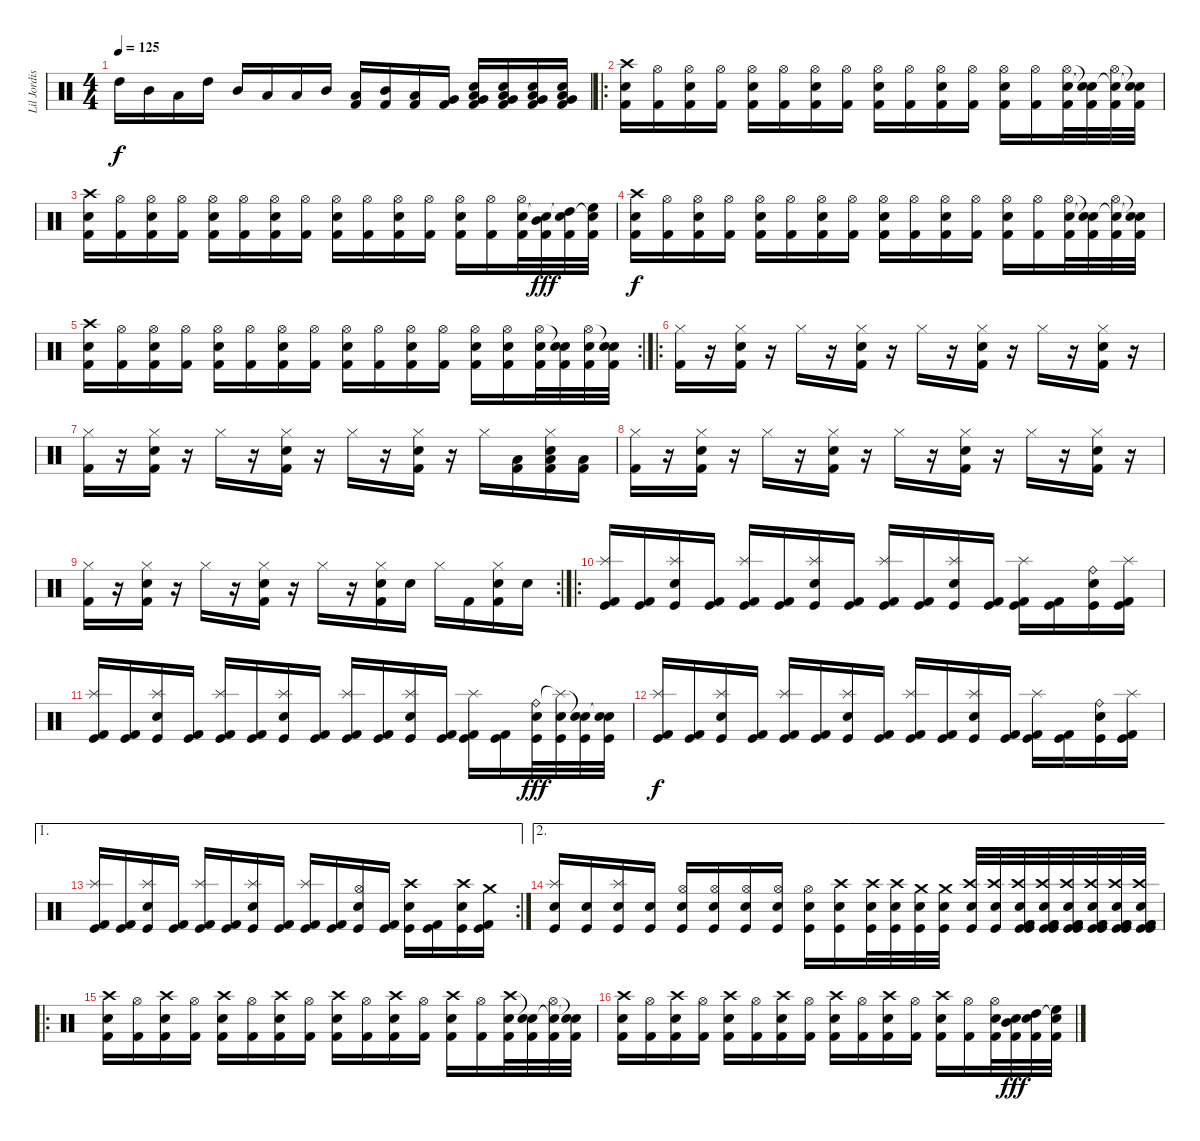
\track ("Lil Jordison" "Lil Jordis") {instrument percussion}
\staff {score}
\articulation defaults
\ts (4 4)
\tempo 125
\clef neutral
\ks c "High Tom (hit)".16{dy f} "Mid Tom (hit)".16 "Low Tom (hit)".16 "High Tom (hit)".16 "Mid Tom (hit)".16 "Low Tom (hit)".16 "Low Tom (hit)".16 "Mid Tom (hit)".16
("Low Tom (hit)" "Kick (hit) 2").16 ("Mid Tom (hit)" "Kick (hit) 2").16 ("Low Tom (hit)" "Kick (hit) 2").16 ("Very Low Tom (hit)" "Kick (hit) 2").16 ("Very Low Tom (hit)" "Low Floor Tom (hit)" "Kick (hit) 2" "Electric Snare (hit)").16 ("Very Low Tom (hit)" "Low Floor Tom (hit)" "Kick (hit) 2" "Electric Snare (hit)").16 ("Very Low Tom (hit)" "Low Floor Tom (hit)" "Kick (hit) 2" "Electric Snare (hit)").16 ("Very Low Tom (hit)" "Low Floor Tom (hit)" "Kick (hit) 2" "Electric Snare (hit)").16 |
\ro
("Crash high (hit)" "Electric Snare (hit)" "Kick (hit) 2").16 ("Hi-Hat (open)" "Kick (hit) 2").16 ("Hi-Hat (open)" "Electric Snare (hit)" "Kick (hit) 2").16 ("Hi-Hat (open)" "Kick (hit) 2").16 ("Hi-Hat (open)" "Electric Snare (hit)" "Kick (hit) 2").16 ("Hi-Hat (open)" "Kick (hit) 2").16 ("Hi-Hat (open)" "Electric Snare (hit)" "Kick (hit) 2").16 ("Hi-Hat (open)" "Kick (hit) 2").16 ("Hi-Hat (open)" "Electric Snare (hit)" "Kick (hit) 2").16 ("Hi-Hat (open)" "Kick (hit) 2").16 ("Hi-Hat (open)" "Electric Snare (hit)" "Kick (hit) 2").16 ("Hi-Hat (open)" "Kick (hit) 2").16 ("Hi-Hat (open)" "Electric Snare (hit)" "Kick (hit) 2").16 ("Hi-Hat (open)" "Kick (hit) 2").16 ("Hi-Hat (open)" "Electric Snare (hit)" "Kick (hit) 2").32 ("Snare (hit)"{t} "Snare (hit)"{t} "Kick (hit) 2").32 ("Hi-Hat (open)" "Snare (hit)"{t} "Kick (hit) 2").32 ("Snare (hit)"{t} "Snare (hit)"{t} "Kick (hit) 2").32 |
("Crash high (hit)" "Electric Snare (hit)" "Kick (hit) 2").16 ("Hi-Hat (open)" "Kick (hit) 2").16 ("Hi-Hat (open)" "Electric Snare (hit)" "Kick (hit) 2").16 ("Hi-Hat (open)" "Kick (hit) 2").16 ("Hi-Hat (open)" "Electric Snare (hit)" "Kick (hit) 2").16 ("Hi-Hat (open)" "Kick (hit) 2").16 ("Hi-Hat (open)" "Electric Snare (hit)" "Kick (hit) 2").16 ("Hi-Hat (open)" "Kick (hit) 2").16 ("Hi-Hat (open)" "Electric Snare (hit)" "Kick (hit) 2").16 ("Hi-Hat (open)" "Kick (hit) 2").16 ("Hi-Hat (open)" "Electric Snare (hit)" "Kick (hit) 2").16 ("Hi-Hat (open)" "Kick (hit) 2").16 ("Hi-Hat (open)" "Electric Snare (hit)" "Kick (hit) 2").16 ("Hi-Hat (open)" "Kick (hit) 2").16 ("Hi-Hat (open)" "Electric Snare (hit)" "Kick (hit) 2").32 ("Mid Tom (hit)" "Snare (hit)"{t} "Kick (hit) 2").32{dy fff} ("High Tom (hit)" "Snare (hit)"{t} "Kick (hit) 2").32 ("High Floor Tom (hit)" "Snare (hit)"{t} "Kick (hit) 2").32 |
("Crash high (hit)" "Electric Snare (hit)" "Kick (hit) 2").16{dy f} ("Hi-Hat (open)" "Kick (hit) 2").16 ("Hi-Hat (open)" "Electric Snare (hit)" "Kick (hit) 2").16 ("Hi-Hat (open)" "Kick (hit) 2").16 ("Hi-Hat (open)" "Electric Snare (hit)" "Kick (hit) 2").16 ("Hi-Hat (open)" "Kick (hit) 2").16 ("Hi-Hat (open)" "Electric Snare (hit)" "Kick (hit) 2").16 ("Hi-Hat (open)" "Kick (hit) 2").16 ("Hi-Hat (open)" "Electric Snare (hit)" "Kick (hit) 2").16 ("Hi-Hat (open)" "Kick (hit) 2").16 ("Hi-Hat (open)" "Electric Snare (hit)" "Kick (hit) 2").16 ("Hi-Hat (open)" "Kick (hit) 2").16 ("Hi-Hat (open)" "Electric Snare (hit)" "Kick (hit) 2").16 ("Hi-Hat (open)" "Kick (hit) 2").16 ("Hi-Hat (open)" "Electric Snare (hit)" "Kick (hit) 2").32 ("Snare (hit)"{t} "Snare (hit)"{t} "Kick (hit) 2").32 ("Hi-Hat (open)" "Snare (hit)"{t} "Kick (hit) 2").32 ("Snare (hit)"{t} "Snare (hit)"{t} "Kick (hit) 2").32 |
\rc 2
("Crash high (hit)" "Electric Snare (hit)" "Kick (hit) 2").16 ("Hi-Hat (open)" "Kick (hit) 2").16 ("Hi-Hat (open)" "Electric Snare (hit)" "Kick (hit) 2").16 ("Hi-Hat (open)" "Kick (hit) 2").16 ("Hi-Hat (open)" "Electric Snare (hit)" "Kick (hit) 2").16 ("Hi-Hat (open)" "Kick (hit) 2").16 ("Hi-Hat (open)" "Electric Snare (hit)" "Kick (hit) 2").16 ("Hi-Hat (open)" "Kick (hit) 2").16 ("Hi-Hat (open)" "Electric Snare (hit)" "Kick (hit) 2").16 ("Hi-Hat (open)" "Kick (hit) 2").16 ("Hi-Hat (open)" "Electric Snare (hit)" "Kick (hit) 2").16 ("Hi-Hat (open)" "Kick (hit) 2").16 ("Hi-Hat (open)" "Electric Snare (hit)" "Kick (hit) 2").16 ("Hi-Hat (open)" "Electric Snare (hit)" "Kick (hit) 2").16 ("Hi-Hat (open)" "Electric Snare (hit)" "Kick (hit) 2").32 ("Snare (hit)"{t} "Electric Snare (hit)" "Kick (hit) 2").32 ("Hi-Hat (open)" "Electric Snare (hit)" "Kick (hit) 2").32 ("Snare (hit)"{t} "Electric Snare (hit)" "Kick (hit) 2").32 |
\ro
("Hi-Hat (closed)" "Kick (hit) 2").16 r.16 ("Hi-Hat (closed)" "Electric Snare (hit)" "Kick (hit) 2").16 r.16 "Hi-Hat (closed)".16 r.16 ("Hi-Hat (closed)" "Electric Snare (hit)" "Kick (hit) 2").16 r.16 "Hi-Hat (closed)".16 r.16 ("Hi-Hat (closed)" "Electric Snare (hit)" "Kick (hit) 2").16 r.16 "Hi-Hat (closed)".16 r.16 ("Hi-Hat (closed)" "Electric Snare (hit)" "Kick (hit) 2").16 r.16 |
("Hi-Hat (closed)" "Kick (hit) 2").16 r.16 ("Hi-Hat (closed)" "Electric Snare (hit)" "Kick (hit) 2").16 r.16 "Hi-Hat (closed)".16 r.16 ("Hi-Hat (closed)" "Electric Snare (hit)" "Kick (hit) 2").16 r.16 "Hi-Hat (closed)".16 r.16 ("Hi-Hat (closed)" "Electric Snare (hit)" "Kick (hit) 2").16 r.16 "Hi-Hat (closed)".16 ("Low Floor Tom (hit)" "Kick (hit) 2").16 ("Hi-Hat (closed)" "Low Floor Tom (hit)" "Electric Snare (hit)" "Kick (hit) 2").16 ("Low Floor Tom (hit)" "Kick (hit) 2").16 |
("Hi-Hat (closed)" "Kick (hit) 2").16 r.16 ("Hi-Hat (closed)" "Electric Snare (hit)" "Kick (hit) 2").16 r.16 "Hi-Hat (closed)".16 r.16 ("Hi-Hat (closed)" "Electric Snare (hit)" "Kick (hit) 2").16 r.16 "Hi-Hat (closed)".16 r.16 ("Hi-Hat (closed)" "Electric Snare (hit)" "Kick (hit) 2").16 r.16 "Hi-Hat (closed)".16 r.16 ("Hi-Hat (closed)" "Electric Snare (hit)" "Kick (hit) 2").16 r.16 |
\rc 2
("Hi-Hat (closed)" "Kick (hit) 2").16 r.16 ("Hi-Hat (closed)" "Electric Snare (hit)" "Kick (hit) 2").16 r.16 "Hi-Hat (closed)".16 r.16 ("Hi-Hat (closed)" "Electric Snare (hit)" "Kick (hit) 2").16 r.16 "Hi-Hat (closed)".16 r.16 ("Hi-Hat (closed)" "Electric Snare (hit)" "Kick (hit) 2").16 "Electric Snare (hit)".16 "Hi-Hat (closed)".16 "Kick (hit) 2".16 ("Hi-Hat (closed)" "Electric Snare (hit)" "Kick (hit) 2").16 "Electric Snare (hit)".16 |
\ro
("Splash (hit)" "Kick (hit)" "Kick (hit) 2").16 ("Kick (hit)" "Kick (hit) 2").16 ("Splash (hit)" "Kick (hit)" "Electric Snare (hit)").16 ("Kick (hit)" "Kick (hit) 2").16 ("Splash (hit)" "Kick (hit)" "Kick (hit) 2").16 ("Kick (hit)" "Kick (hit) 2").16 ("Splash (hit)" "Kick (hit)" "Electric Snare (hit)").16 ("Kick (hit)" "Kick (hit) 2").16 ("Splash (hit)" "Kick (hit)" "Kick (hit) 2").16 ("Kick (hit)" "Kick (hit) 2").16 ("Splash (hit)" "Kick (hit)" "Electric Snare (hit)").16 ("Kick (hit)" "Kick (hit) 2").16 ("Splash (hit)" "Kick (hit)" "Kick (hit) 2").16 ("Kick (hit)" "Kick (hit) 2").16 ("Ride (bell)" "Kick (hit)" "Electric Snare (hit)").16 ("Splash (hit)" "Kick (hit)" "Kick (hit) 2").16 |
("Splash (hit)" "Kick (hit)" "Kick (hit) 2").16 ("Kick (hit)" "Kick (hit) 2").16 ("Splash (hit)" "Kick (hit)" "Electric Snare (hit)").16 ("Kick (hit)" "Kick (hit) 2").16 ("Splash (hit)" "Kick (hit)" "Kick (hit) 2").16 ("Kick (hit)" "Kick (hit) 2").16 ("Splash (hit)" "Kick (hit)" "Electric Snare (hit)").16 ("Kick (hit)" "Kick (hit) 2").16 ("Splash (hit)" "Kick (hit)" "Kick (hit) 2").16 ("Kick (hit)" "Kick (hit) 2").16 ("Splash (hit)" "Kick (hit)" "Electric Snare (hit)").16 ("Kick (hit)" "Kick (hit) 2").16 ("Splash (hit)" "Kick (hit)" "Kick (hit) 2").16 ("Kick (hit)" "Kick (hit) 2").16 ("Ride (bell)" "Kick (hit)" "Electric Snare (hit)").32{dy fff} ("Splash (hit)"{t} "Kick (hit)" "Electric Snare (hit)").32 ("Snare (hit)"{t} "Kick (hit)" "Electric Snare (hit)").32 ("Snare (hit)"{t} "Kick (hit)" "Electric Snare (hit)").32 |
("Splash (hit)" "Kick (hit)" "Kick (hit) 2").16{dy f} ("Kick (hit)" "Kick (hit) 2").16 ("Splash (hit)" "Kick (hit)" "Electric Snare (hit)").16 ("Kick (hit)" "Kick (hit) 2").16 ("Splash (hit)" "Kick (hit)" "Kick (hit) 2").16 ("Kick (hit)" "Kick (hit) 2").16 ("Splash (hit)" "Kick (hit)" "Electric Snare (hit)").16 ("Kick (hit)" "Kick (hit) 2").16 ("Splash (hit)" "Kick (hit)" "Kick (hit) 2").16 ("Kick (hit)" "Kick (hit) 2").16 ("Splash (hit)" "Kick (hit)" "Electric Snare (hit)").16 ("Kick (hit)" "Kick (hit) 2").16 ("Splash (hit)" "Kick (hit)" "Kick (hit) 2").16 ("Kick (hit)" "Kick (hit) 2").16 ("Ride (bell)" "Kick (hit)" "Electric Snare (hit)").16 ("Splash (hit)" "Kick (hit)" "Kick (hit) 2").16 |
\ae 1
\rc 2
("Splash (hit)" "Kick (hit)" "Kick (hit) 2").16 ("Kick (hit)" "Kick (hit) 2").16 ("Splash (hit)" "Kick (hit)" "Electric Snare (hit)").16 ("Kick (hit)" "Kick (hit) 2").16 ("Splash (hit)" "Kick (hit)" "Kick (hit) 2").16 ("Kick (hit)" "Kick (hit) 2").16 ("Splash (hit)" "Kick (hit)" "Electric Snare (hit)").16 ("Kick (hit)" "Kick (hit) 2").16 ("Splash (hit)" "Kick (hit)" "Kick (hit) 2").16 ("Kick (hit)" "Kick (hit) 2").16 ("Hi-Hat (open)" "Kick (hit)" "Electric Snare (hit)").16 ("Kick (hit)" "Kick (hit) 2").16 ("Crash high (hit)" "Kick (hit)" "Electric Snare (hit)").16 ("Kick (hit)" "Kick (hit) 2").16 ("Crash high (hit)" "Kick (hit)" "Electric Snare (hit)").16 ("Crash medium (hit)" "Kick (hit)" "Kick (hit) 2").16 |
\ae 2
("Splash (hit)" "Kick (hit)" "Electric Snare (hit)").16 ("Kick (hit)" "Electric Snare (hit)").16 ("Splash (hit)" "Kick (hit)" "Electric Snare (hit)").16 ("Kick (hit)" "Electric Snare (hit)").16 ("Hi-Hat (open)" "Kick (hit)" "Electric Snare (hit)").16 ("Hi-Hat (open)" "Kick (hit)" "Electric Snare (hit)").16 ("Hi-Hat (open)" "Kick (hit)" "Electric Snare (hit)").16 ("Hi-Hat (open)" "Kick (hit)" "Electric Snare (hit)").16 ("Hi-Hat (open)" "Kick (hit)" "Electric Snare (hit)").16 ("Crash high (hit)" "Kick (hit)" "Electric Snare (hit)").16 ("Crash high (hit)" "Kick (hit)" "Electric Snare (hit)").32 ("Crash high (hit)" "Kick (hit)" "Electric Snare (hit)").32 ("Crash medium (hit)" "Kick (hit)" "Electric Snare (hit)").32 ("Crash medium (hit)" "Kick (hit)" "Electric Snare (hit)").32 ("Crash high (hit)" "Kick (hit)" "Electric Snare (hit)").32 ("Crash high (hit)" "Kick (hit)" "Electric Snare (hit)").32 ("Crash high (hit)" "Kick (hit) 2" "Kick (hit)" "Kick (hit) 2" "Kick (hit)" "Electric Snare (hit)").32 ("Crash high (hit)" "Kick (hit) 2" "Kick (hit)" "Kick (hit) 2" "Kick (hit)" "Electric Snare (hit)").32 ("Crash high (hit)" "Kick (hit) 2" "Kick (hit)" "Kick (hit) 2" "Kick (hit)" "Electric Snare (hit)").32 ("Crash high (hit)" "Kick (hit) 2" "Kick (hit)" "Kick (hit) 2" "Kick (hit)" "Electric Snare (hit)").32 ("Crash high (hit)" "Kick (hit) 2" "Kick (hit)" "Kick (hit) 2" "Kick (hit)" "Electric Snare (hit)").32 ("Crash high (hit)" "Kick (hit) 2" "Kick (hit)" "Kick (hit) 2" "Kick (hit)" "Electric Snare (hit)").32 |
\ro
("Crash high (hit)" "Electric Snare (hit)" "Kick (hit) 2").16 ("Hi-Hat (open)" "Kick (hit) 2").16 ("Crash high (hit)" "Electric Snare (hit)" "Kick (hit) 2").16 ("Hi-Hat (open)" "Kick (hit) 2").16 ("Crash high (hit)" "Electric Snare (hit)" "Kick (hit) 2").16 ("Hi-Hat (open)" "Kick (hit) 2").16 ("Crash high (hit)" "Electric Snare (hit)" "Kick (hit) 2").16 ("Hi-Hat (open)" "Kick (hit) 2").16 ("Crash high (hit)" "Electric Snare (hit)" "Kick (hit) 2").16 ("Hi-Hat (open)" "Kick (hit) 2").16 ("Crash high (hit)" "Electric Snare (hit)" "Kick (hit) 2").16 ("Hi-Hat (open)" "Kick (hit) 2").16 ("Crash high (hit)" "Electric Snare (hit)" "Kick (hit) 2").16 ("Hi-Hat (open)" "Kick (hit) 2").16 ("Crash high (hit)" "Electric Snare (hit)" "Kick (hit) 2").32 ("Snare (hit)"{t} "Snare (hit)"{t} "Kick (hit) 2").32 ("Hi-Hat (open)" "Snare (hit)"{t} "Kick (hit) 2").32 ("Snare (hit)"{t} "Snare (hit)"{t} "Kick (hit) 2").32 |
("Crash high (hit)" "Electric Snare (hit)" "Kick (hit) 2").16 ("Hi-Hat (open)" "Kick (hit) 2").16 ("Crash high (hit)" "Electric Snare (hit)" "Kick (hit) 2").16 ("Hi-Hat (open)" "Kick (hit) 2").16 ("Crash high (hit)" "Electric Snare (hit)" "Kick (hit) 2").16 ("Hi-Hat (open)" "Kick (hit) 2").16 ("Crash high (hit)" "Electric Snare (hit)" "Kick (hit) 2").16 ("Hi-Hat (open)" "Kick (hit) 2").16 ("Crash high (hit)" "Electric Snare (hit)" "Kick (hit) 2").16 ("Hi-Hat (open)" "Kick (hit) 2").16 ("Crash high (hit)" "Electric Snare (hit)" "Kick (hit) 2").16 ("Hi-Hat (open)" "Kick (hit) 2").16 ("Crash high (hit)" "Electric Snare (hit)" "Kick (hit) 2").16 ("Hi-Hat (open)" "Kick (hit) 2").16 ("Hi-Hat (open)" "Electric Snare (hit)" "Kick (hit) 2").32 ("Mid Tom (hit)" "Snare (hit)"{t} "Kick (hit) 2").32{dy fff} ("High Tom (hit)" "Snare (hit)"{t} "Kick (hit) 2").32 ("High Floor Tom (hit)" "Snare (hit)"{t} "Kick (hit) 2").32
